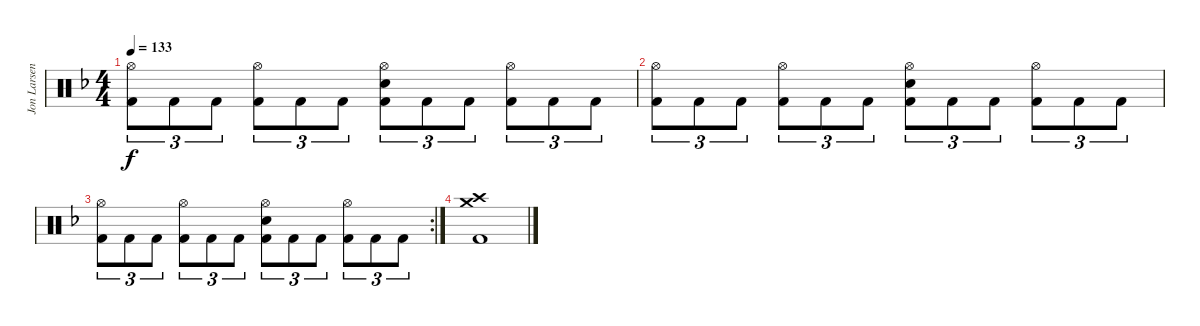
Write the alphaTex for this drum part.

\track ("Jon Larsen" "Jon Larsen") {instrument percussion}
\staff {score}
\articulation defaults
\ts (4 4)
\tempo 133
\clef neutral
\ks f
("Hi-Hat (open)" "Kick (hit) 2").8{tu (3 2) dy f} "Kick (hit) 2".8{tu (3 2)} "Kick (hit) 2".8{tu (3 2)} ("Hi-Hat (open)" "Kick (hit) 2").8{tu (3 2)} "Kick (hit) 2".8{tu (3 2)} "Kick (hit) 2".8{tu (3 2)} ("Hi-Hat (open)" "Kick (hit) 2" "Electric Snare (hit)").8{tu (3 2)} "Kick (hit) 2".8{tu (3 2)} "Kick (hit) 2".8{tu (3 2)} ("Hi-Hat (open)" "Kick (hit) 2").8{tu (3 2)} "Kick (hit) 2".8{tu (3 2)} "Kick (hit) 2".8{tu (3 2)} |
("Hi-Hat (open)" "Kick (hit) 2").8{tu (3 2)} "Kick (hit) 2".8{tu (3 2)} "Kick (hit) 2".8{tu (3 2)} ("Hi-Hat (open)" "Kick (hit) 2").8{tu (3 2)} "Kick (hit) 2".8{tu (3 2)} "Kick (hit) 2".8{tu (3 2)} ("Hi-Hat (open)" "Kick (hit) 2" "Electric Snare (hit)").8{tu (3 2)} "Kick (hit) 2".8{tu (3 2)} "Kick (hit) 2".8{tu (3 2)} ("Hi-Hat (open)" "Kick (hit) 2").8{tu (3 2)} "Kick (hit) 2".8{tu (3 2)} "Kick (hit) 2".8{tu (3 2)} |
\rc 2
("Hi-Hat (open)" "Kick (hit) 2").8{tu (3 2)} "Kick (hit) 2".8{tu (3 2)} "Kick (hit) 2".8{tu (3 2)} ("Hi-Hat (open)" "Kick (hit) 2").8{tu (3 2)} "Kick (hit) 2".8{tu (3 2)} "Kick (hit) 2".8{tu (3 2)} ("Hi-Hat (open)" "Kick (hit) 2" "Electric Snare (hit)").8{tu (3 2)} "Kick (hit) 2".8{tu (3 2)} "Kick (hit) 2".8{tu (3 2)} ("Hi-Hat (open)" "Kick (hit) 2").8{tu (3 2)} "Kick (hit) 2".8{tu (3 2)} "Kick (hit) 2".8{tu (3 2)} |
("Crash medium (hit)" "Crash high (hit)" "Kick (hit) 2").1
